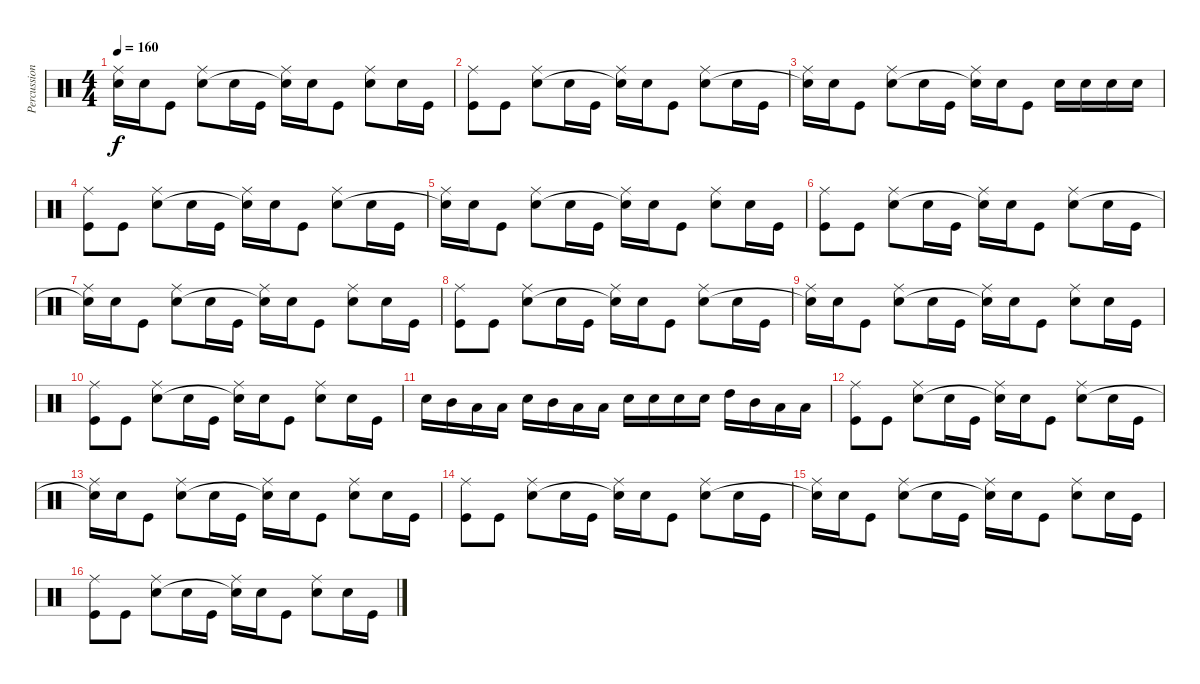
\track ("Percussion" "Percussion") {instrument percussion}
\staff {score}
\articulation defaults
\ts (4 4)
\tempo 160
\clef neutral
\ks c
("Ride (middle)" "Snare (hit)"{t}).16{dy f} "Snare (hit) 2".16 "Kick (hit)".8 ("Ride (middle)" "Snare (hit) 2").8 "Snare (hit) 2".16 "Kick (hit)".16 ("Ride (middle)" "Snare (hit)"{t}).16 "Snare (hit) 2".16 "Kick (hit)".8 ("Ride (middle)" "Snare (hit) 2").8 "Snare (hit) 2".16 "Kick (hit)".16 |
("Ride (middle)" "Kick (hit)").8 "Kick (hit)".8 ("Ride (middle)" "Snare (hit) 2").8 "Snare (hit) 2".16 "Kick (hit)".16 ("Ride (middle)" "Snare (hit)"{t}).16 "Snare (hit) 2".16 "Kick (hit)".8 ("Ride (middle)" "Snare (hit) 2").8 "Snare (hit) 2".16 "Kick (hit)".16 |
("Ride (middle)" "Snare (hit)"{t}).16 "Snare (hit) 2".16 "Kick (hit)".8 ("Ride (middle)" "Snare (hit) 2").8 "Snare (hit) 2".16 "Kick (hit)".16 ("Ride (middle)" "Snare (hit)"{t}).16 "Snare (hit) 2".16 "Kick (hit)".8 "Snare (hit) 2".16 "Snare (hit) 2".16 "Snare (hit) 2".16 "Snare (hit) 2".16 |
("Ride (middle)" "Kick (hit)").8 "Kick (hit)".8 ("Ride (middle)" "Snare (hit) 2").8 "Snare (hit) 2".16 "Kick (hit)".16 ("Ride (middle)" "Snare (hit)"{t}).16 "Snare (hit) 2".16 "Kick (hit)".8 ("Ride (middle)" "Snare (hit) 2").8 "Snare (hit) 2".16 "Kick (hit)".16 |
("Ride (middle)" "Snare (hit)"{t}).16 "Snare (hit) 2".16 "Kick (hit)".8 ("Ride (middle)" "Snare (hit) 2").8 "Snare (hit) 2".16 "Kick (hit)".16 ("Ride (middle)" "Snare (hit)"{t}).16 "Snare (hit) 2".16 "Kick (hit)".8 ("Ride (middle)" "Snare (hit) 2").8 "Snare (hit) 2".16 "Kick (hit)".16 |
("Ride (middle)" "Kick (hit)").8 "Kick (hit)".8 ("Ride (middle)" "Snare (hit) 2").8 "Snare (hit) 2".16 "Kick (hit)".16 ("Ride (middle)" "Snare (hit)"{t}).16 "Snare (hit) 2".16 "Kick (hit)".8 ("Ride (middle)" "Snare (hit) 2").8 "Snare (hit) 2".16 "Kick (hit)".16 |
("Ride (middle)" "Snare (hit)"{t}).16 "Snare (hit) 2".16 "Kick (hit)".8 ("Ride (middle)" "Snare (hit) 2").8 "Snare (hit) 2".16 "Kick (hit)".16 ("Ride (middle)" "Snare (hit)"{t}).16 "Snare (hit) 2".16 "Kick (hit)".8 ("Ride (middle)" "Snare (hit) 2").8 "Snare (hit) 2".16 "Kick (hit)".16 |
("Ride (middle)" "Kick (hit)").8 "Kick (hit)".8 ("Ride (middle)" "Snare (hit) 2").8 "Snare (hit) 2".16 "Kick (hit)".16 ("Ride (middle)" "Snare (hit)"{t}).16 "Snare (hit) 2".16 "Kick (hit)".8 ("Ride (middle)" "Snare (hit) 2").8 "Snare (hit) 2".16 "Kick (hit)".16 |
("Ride (middle)" "Snare (hit)"{t}).16 "Snare (hit) 2".16 "Kick (hit)".8 ("Ride (middle)" "Snare (hit) 2").8 "Snare (hit) 2".16 "Kick (hit)".16 ("Ride (middle)" "Snare (hit)"{t}).16 "Snare (hit) 2".16 "Kick (hit)".8 ("Ride (middle)" "Snare (hit) 2").8 "Snare (hit) 2".16 "Kick (hit)".16 |
("Ride (middle)" "Kick (hit)").8 "Kick (hit)".8 ("Ride (middle)" "Snare (hit) 2").8 "Snare (hit) 2".16 "Kick (hit)".16 ("Ride (middle)" "Snare (hit)"{t}).16 "Snare (hit) 2".16 "Kick (hit)".8 ("Ride (middle)" "Snare (hit) 2").8 "Snare (hit) 2".16 "Kick (hit)".16 |
"Snare (hit) 2".16 "Mid Tom (hit)".16 "Low Tom (hit)".16 "Low Tom (hit)".16 "Snare (hit) 2".16 "Mid Tom (hit)".16 "Low Tom (hit)".16 "Low Tom (hit)".16 "Snare (hit) 2".16 "Snare (hit) 2".16 "Snare (hit) 2".16 "Snare (hit) 2".16 "High Tom (hit)".16 "Mid Tom (hit)".16 "Low Tom (hit)".16 "Low Tom (hit)".16 |
("Ride (middle)" "Kick (hit)").8 "Kick (hit)".8 ("Ride (middle)" "Snare (hit) 2").8 "Snare (hit) 2".16 "Kick (hit)".16 ("Ride (middle)" "Snare (hit)"{t}).16 "Snare (hit) 2".16 "Kick (hit)".8 ("Ride (middle)" "Snare (hit) 2").8 "Snare (hit) 2".16 "Kick (hit)".16 |
("Ride (middle)" "Snare (hit)"{t}).16 "Snare (hit) 2".16 "Kick (hit)".8 ("Ride (middle)" "Snare (hit) 2").8 "Snare (hit) 2".16 "Kick (hit)".16 ("Ride (middle)" "Snare (hit)"{t}).16 "Snare (hit) 2".16 "Kick (hit)".8 ("Ride (middle)" "Snare (hit) 2").8 "Snare (hit) 2".16 "Kick (hit)".16 |
("Ride (middle)" "Kick (hit)").8 "Kick (hit)".8 ("Ride (middle)" "Snare (hit) 2").8 "Snare (hit) 2".16 "Kick (hit)".16 ("Ride (middle)" "Snare (hit)"{t}).16 "Snare (hit) 2".16 "Kick (hit)".8 ("Ride (middle)" "Snare (hit) 2").8 "Snare (hit) 2".16 "Kick (hit)".16 |
("Ride (middle)" "Snare (hit)"{t}).16 "Snare (hit) 2".16 "Kick (hit)".8 ("Ride (middle)" "Snare (hit) 2").8 "Snare (hit) 2".16 "Kick (hit)".16 ("Ride (middle)" "Snare (hit)"{t}).16 "Snare (hit) 2".16 "Kick (hit)".8 ("Ride (middle)" "Snare (hit) 2").8 "Snare (hit) 2".16 "Kick (hit)".16 |
("Ride (middle)" "Kick (hit)").8 "Kick (hit)".8 ("Ride (middle)" "Snare (hit) 2").8 "Snare (hit) 2".16 "Kick (hit)".16 ("Ride (middle)" "Snare (hit)"{t}).16 "Snare (hit) 2".16 "Kick (hit)".8 ("Ride (middle)" "Snare (hit) 2").8 "Snare (hit) 2".16 "Kick (hit)".16
